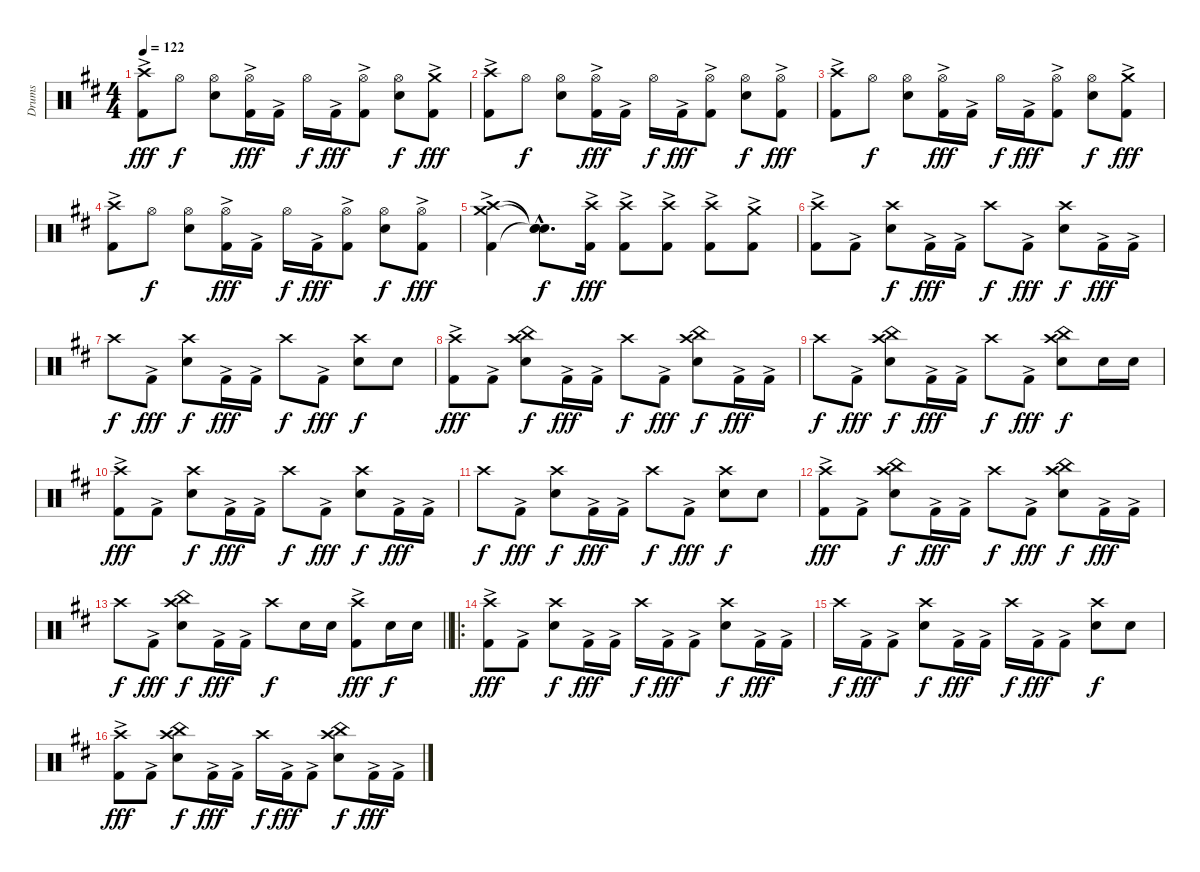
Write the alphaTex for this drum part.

\track ("Drums" "Drums") {instrument percussion}
\staff {score}
\articulation defaults
\ts (4 4)
\tempo 122
\clef neutral
\ks bminor
("Crash high (hit)" "Kick (hit) 2"{ac}).8{dy fff} "Hi-Hat (open)".8{dy f} ("Hi-Hat (open)" "Snare (hit) 2").8 ("Hi-Hat (open)" "Kick (hit) 2"{ac}).16{dy fff} "Kick (hit) 2"{ac}.16 "Hi-Hat (open)".16{dy f} "Kick (hit) 2"{ac}.16{dy fff} ("Hi-Hat (open)" "Kick (hit) 2"{ac}).8 ("Hi-Hat (open)" "Snare (hit) 2").8{dy f} ("Crash medium (hit)" "Kick (hit) 2"{ac}).8{dy fff} |
("Crash high (hit)" "Kick (hit) 2"{ac}).8 "Hi-Hat (open)".8{dy f} ("Hi-Hat (open)" "Snare (hit) 2").8 ("Hi-Hat (open)" "Kick (hit) 2"{ac}).16{dy fff} "Kick (hit) 2"{ac}.16 "Hi-Hat (open)".16{dy f} "Kick (hit) 2"{ac}.16{dy fff} ("Hi-Hat (open)" "Kick (hit) 2"{ac}).8 ("Hi-Hat (open)" "Snare (hit) 2").8{dy f} ("Hi-Hat (open)" "Kick (hit) 2"{ac}).8{dy fff} |
("Crash high (hit)" "Kick (hit) 2"{ac}).8 "Hi-Hat (open)".8{dy f} ("Hi-Hat (open)" "Snare (hit) 2").8 ("Hi-Hat (open)" "Kick (hit) 2"{ac}).16{dy fff} "Kick (hit) 2"{ac}.16 "Hi-Hat (open)".16{dy f} "Kick (hit) 2"{ac}.16{dy fff} ("Hi-Hat (open)" "Kick (hit) 2"{ac}).8 ("Hi-Hat (open)" "Snare (hit) 2").8{dy f} ("Crash medium (hit)" "Kick (hit) 2"{ac}).8{dy fff} |
("Crash high (hit)" "Kick (hit) 2"{ac}).8 "Hi-Hat (open)".8{dy f} ("Hi-Hat (open)" "Snare (hit) 2").8 ("Hi-Hat (open)" "Kick (hit) 2"{ac}).16{dy fff} "Kick (hit) 2"{ac}.16 "Hi-Hat (open)".16{dy f} "Kick (hit) 2"{ac}.16{dy fff} ("Hi-Hat (open)" "Kick (hit) 2"{ac}).8 ("Hi-Hat (open)" "Snare (hit) 2").8{dy f} ("Hi-Hat (open)" "Kick (hit) 2"{ac}).8{dy fff} |
("Crash high (hit)" "Crash medium (hit)" "Kick (hit) 2"{ac}).4 ("Snare (hit)"{hac t} "Snare (hit)"{hac t} "Snare (hit)"{hac t}).8{d dy f} ("Crash high (hit)" "Kick (hit) 2"{ac}).16{dy fff} ("Crash high (hit)" "Kick (hit) 2"{ac}).8 ("Crash high (hit)" "Kick (hit) 2"{ac}).8 ("Crash high (hit)" "Kick (hit) 2"{ac}).8 ("Crash medium (hit)" "Kick (hit) 2"{ac}).8 |
("Crash high (hit)" "Kick (hit) 2"{ac}).8 "Kick (hit) 2"{ac}.8 ("Crash high (hit)" "Snare (hit) 2").8{dy f} "Kick (hit) 2"{ac}.16{dy fff} "Kick (hit) 2"{ac}.16 "Crash high (hit)".8{dy f} "Kick (hit) 2"{ac}.8{dy fff} ("Crash high (hit)" "Snare (hit) 2").8{dy f} "Kick (hit) 2"{ac}.16{dy fff} "Kick (hit) 2"{ac}.16 |
"Crash high (hit)".8{dy f} "Kick (hit) 2"{ac}.8{dy fff} ("Crash high (hit)" "Snare (hit) 2").8{dy f} "Kick (hit) 2"{ac}.16{dy fff} "Kick (hit) 2"{ac}.16 "Crash high (hit)".8{dy f} "Kick (hit) 2"{ac}.8{dy fff} ("Crash high (hit)" "Snare (hit) 2").8{dy f} "Snare (hit) 2".8 |
("Crash high (hit)" "Kick (hit) 2"{ac}).8{dy fff} "Kick (hit) 2"{ac}.8 ("Crash high (hit)" "China (hit)" "Snare (hit) 2").8{dy f} "Kick (hit) 2"{ac}.16{dy fff} "Kick (hit) 2"{ac}.16 "Crash high (hit)".8{dy f} "Kick (hit) 2"{ac}.8{dy fff} ("Crash high (hit)" "China (hit)" "Snare (hit) 2").8{dy f} "Kick (hit) 2"{ac}.16{dy fff} "Kick (hit) 2"{ac}.16 |
"Crash high (hit)".8{dy f} "Kick (hit) 2"{ac}.8{dy fff} ("Crash high (hit)" "China (hit)" "Snare (hit) 2").8{dy f} "Kick (hit) 2"{ac}.16{dy fff} "Kick (hit) 2"{ac}.16 "Crash high (hit)".8{dy f} "Kick (hit) 2"{ac}.8{dy fff} ("Crash high (hit)" "China (hit)" "Snare (hit) 2").8{dy f} "Snare (hit) 2".16 "Snare (hit) 2".16 |
("Crash high (hit)" "Kick (hit) 2"{ac}).8{dy fff} "Kick (hit) 2"{ac}.8 ("Crash high (hit)" "Snare (hit) 2").8{dy f} "Kick (hit) 2"{ac}.16{dy fff} "Kick (hit) 2"{ac}.16 "Crash high (hit)".8{dy f} "Kick (hit) 2"{ac}.8{dy fff} ("Crash high (hit)" "Snare (hit) 2").8{dy f} "Kick (hit) 2"{ac}.16{dy fff} "Kick (hit) 2"{ac}.16 |
"Crash high (hit)".8{dy f} "Kick (hit) 2"{ac}.8{dy fff} ("Crash high (hit)" "Snare (hit) 2").8{dy f} "Kick (hit) 2"{ac}.16{dy fff} "Kick (hit) 2"{ac}.16 "Crash high (hit)".8{dy f} "Kick (hit) 2"{ac}.8{dy fff} ("Crash high (hit)" "Snare (hit) 2").8{dy f} "Snare (hit) 2".8 |
("Crash high (hit)" "Kick (hit) 2"{ac}).8{dy fff} "Kick (hit) 2"{ac}.8 ("Crash high (hit)" "China (hit)" "Snare (hit) 2").8{dy f} "Kick (hit) 2"{ac}.16{dy fff} "Kick (hit) 2"{ac}.16 "Crash high (hit)".8{dy f} "Kick (hit) 2"{ac}.8{dy fff} ("Crash high (hit)" "China (hit)" "Snare (hit) 2").8{dy f} "Kick (hit) 2"{ac}.16{dy fff} "Kick (hit) 2"{ac}.16 |
\barLineRight lightlight "Crash high (hit)".8{dy f} "Kick (hit) 2"{ac}.8{dy fff}
("Crash high (hit)" "China (hit)" "Snare (hit) 2").8{dy f} "Kick (hit) 2"{ac}.16{dy fff} "Kick (hit) 2"{ac}.16 "Crash high (hit)".8{dy f} "Snare (hit) 2".16 "Snare (hit) 2".16 ("Crash high (hit)" "Kick (hit) 2"{ac}).8{dy fff} "Snare (hit) 2".16{dy f} "Snare (hit) 2".16 |
\ro
("Crash high (hit)" "Kick (hit) 2"{ac}).8{dy fff} "Kick (hit) 2"{ac}.8 ("Crash high (hit)" "Snare (hit) 2").8{dy f} "Kick (hit) 2"{ac}.16{dy fff} "Kick (hit) 2"{ac}.16 "Crash high (hit)".16{dy f} "Kick (hit) 2"{ac}.16{dy fff} "Kick (hit) 2"{ac}.8 ("Crash high (hit)" "Snare (hit) 2").8{dy f} "Kick (hit) 2"{ac}.16{dy fff} "Kick (hit) 2"{ac}.16 |
"Crash high (hit)".16{dy f} "Kick (hit) 2"{ac}.16{dy fff} "Kick (hit) 2"{ac}.8 ("Crash high (hit)" "Snare (hit) 2").8{dy f} "Kick (hit) 2"{ac}.16{dy fff} "Kick (hit) 2"{ac}.16 "Crash high (hit)".16{dy f} "Kick (hit) 2"{ac}.16{dy fff} "Kick (hit) 2"{ac}.8 ("Crash high (hit)" "Snare (hit) 2").8{dy f} "Snare (hit) 2".8 |
("Crash high (hit)" "Kick (hit) 2"{ac}).8{dy fff} "Kick (hit) 2"{ac}.8 ("Crash high (hit)" "China (hit)" "Snare (hit) 2").8{dy f} "Kick (hit) 2"{ac}.16{dy fff} "Kick (hit) 2"{ac}.16 "Crash high (hit)".16{dy f} "Kick (hit) 2"{ac}.16{dy fff} "Kick (hit) 2"{ac}.8 ("Crash high (hit)" "China (hit)" "Snare (hit) 2").8{dy f} "Kick (hit) 2"{ac}.16{dy fff} "Kick (hit) 2"{ac}.16
